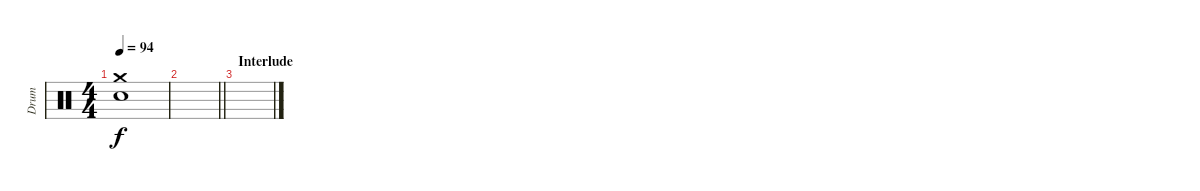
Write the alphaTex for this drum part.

\track ("Drum" "Drum") {instrument percussion}
\staff {score}
\articulation defaults
\ts (4 4)
\tempo 94
\clef neutral
\ks c
("Crash medium (hit)" "Snare (hit) 2").1{dy f} |
\barLineRight lightlight
|
\section ("" "Interlude")
